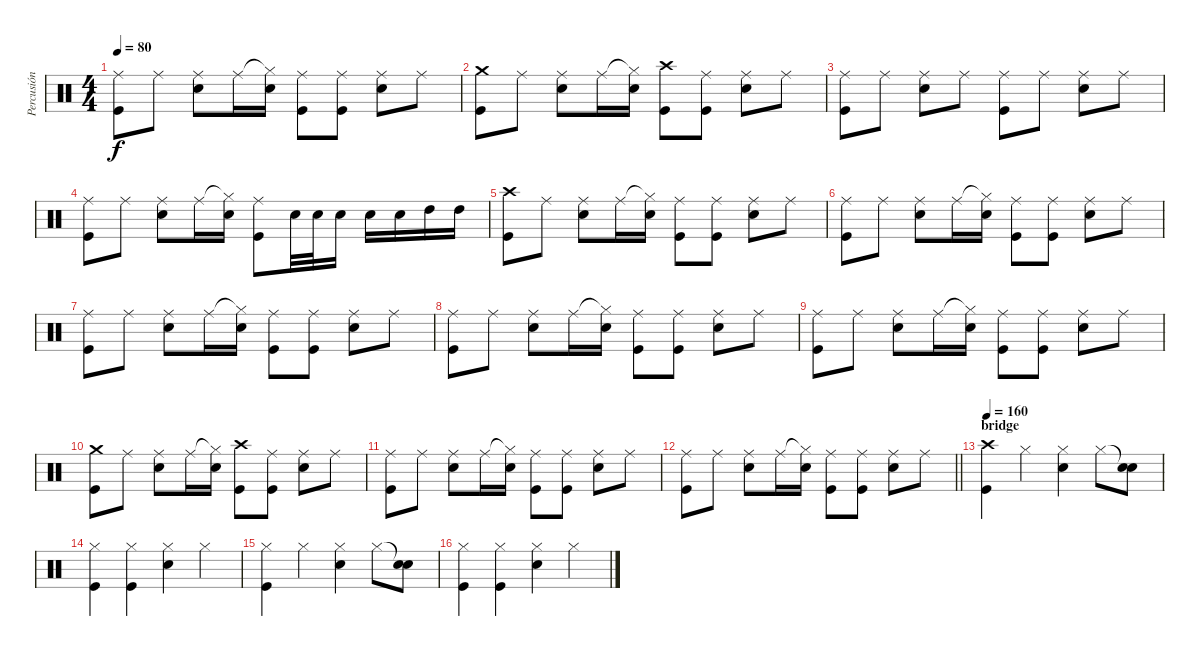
\track ("Percusión" "Percusión") {instrument percussion}
\staff {score}
\articulation defaults
\ts (4 4)
\tempo 80
\clef neutral
\ks c
("Ride (middle)" "Kick (hit)").8{dy f} "Ride (middle)".8 ("Ride (middle)" "Snare (hit) 2").8 "Ride (middle)".16 ("Hi-Hat (closed)"{t} "Snare (hit) 2").16 ("Ride (middle)" "Kick (hit)").8 ("Ride (middle)" "Kick (hit)").8 ("Ride (middle)" "Snare (hit) 2").8 "Ride (middle)".8 |
("Crash medium (hit)" "Kick (hit)").8 "Ride (middle)".8 ("Ride (middle)" "Snare (hit) 2").8 "Ride (middle)".16 ("Hi-Hat (closed)"{t} "Snare (hit) 2").16 ("Crash high (hit)" "Kick (hit)").8 ("Ride (middle)" "Kick (hit)").8 ("Ride (middle)" "Snare (hit) 2").8 "Ride (middle)".8 |
("Ride (middle)" "Kick (hit)").8 "Ride (middle)".8 ("Ride (middle)" "Snare (hit) 2").8 "Ride (middle)".8 ("Ride (middle)" "Kick (hit)").8 "Ride (middle)".8 ("Ride (middle)" "Snare (hit) 2").8 "Ride (middle)".8 |
("Ride (middle)" "Kick (hit)").8 "Ride (middle)".8 ("Ride (middle)" "Snare (hit) 2").8 "Ride (middle)".16 ("Hi-Hat (closed)"{t} "Snare (hit) 2").16 ("Ride (middle)" "Kick (hit)").8 "Snare (hit) 2".32 "Snare (hit) 2".32 "Snare (hit) 2".16 "Snare (hit) 2".16 "Snare (hit) 2".16 "High Tom (hit)".16 "High Tom (hit)".16 |
("Crash high (hit)" "Kick (hit)").8 "Ride (middle)".8 ("Ride (middle)" "Snare (hit) 2").8 "Ride (middle)".16 ("Hi-Hat (closed)"{t} "Snare (hit) 2").16 ("Ride (middle)" "Kick (hit)").8 ("Ride (middle)" "Kick (hit)").8 ("Ride (middle)" "Snare (hit) 2").8 "Ride (middle)".8 |
("Ride (middle)" "Kick (hit)").8 "Ride (middle)".8 ("Ride (middle)" "Snare (hit) 2").8 "Ride (middle)".16 ("Hi-Hat (closed)"{t} "Snare (hit) 2").16 ("Ride (middle)" "Kick (hit)").8 ("Ride (middle)" "Kick (hit)").8 ("Ride (middle)" "Snare (hit) 2").8 "Ride (middle)".8 |
("Ride (middle)" "Kick (hit)").8 "Ride (middle)".8 ("Ride (middle)" "Snare (hit) 2").8 "Ride (middle)".16 ("Hi-Hat (closed)"{t} "Snare (hit) 2").16 ("Ride (middle)" "Kick (hit)").8 ("Ride (middle)" "Kick (hit)").8 ("Ride (middle)" "Snare (hit) 2").8 "Ride (middle)".8 |
("Ride (middle)" "Kick (hit)").8 "Ride (middle)".8 ("Ride (middle)" "Snare (hit) 2").8 "Ride (middle)".16 ("Hi-Hat (closed)"{t} "Snare (hit) 2").16 ("Ride (middle)" "Kick (hit)").8 ("Ride (middle)" "Kick (hit)").8 ("Ride (middle)" "Snare (hit) 2").8 "Ride (middle)".8 |
("Ride (middle)" "Kick (hit)").8 "Ride (middle)".8 ("Ride (middle)" "Snare (hit) 2").8 "Ride (middle)".16 ("Hi-Hat (closed)"{t} "Snare (hit) 2").16 ("Ride (middle)" "Kick (hit)").8 ("Ride (middle)" "Kick (hit)").8 ("Ride (middle)" "Snare (hit) 2").8 "Ride (middle)".8 |
("Crash medium (hit)" "Kick (hit)").8 "Ride (middle)".8 ("Ride (middle)" "Snare (hit) 2").8 "Ride (middle)".16 ("Hi-Hat (closed)"{t} "Snare (hit) 2").16 ("Crash high (hit)" "Kick (hit)").8 ("Ride (middle)" "Kick (hit)").8 ("Ride (middle)" "Snare (hit) 2").8 "Ride (middle)".8 |
("Ride (middle)" "Kick (hit)").8 "Ride (middle)".8 ("Ride (middle)" "Snare (hit) 2").8 "Ride (middle)".16 ("Hi-Hat (closed)"{t} "Snare (hit) 2").16 ("Ride (middle)" "Kick (hit)").8 ("Ride (middle)" "Kick (hit)").8 ("Ride (middle)" "Snare (hit) 2").8 "Ride (middle)".8 |
\barLineRight lightlight
("Ride (middle)" "Kick (hit)").8 "Ride (middle)".8 ("Ride (middle)" "Snare (hit) 2").8 "Ride (middle)".16 ("Hi-Hat (closed)"{t} "Snare (hit) 2").16 ("Ride (middle)" "Kick (hit)").8 ("Ride (middle)" "Kick (hit)").8 ("Ride (middle)" "Snare (hit) 2").8 "Ride (middle)".8 |
\section ("" "bridge")
\tempo 160
("Crash high (hit)" "Kick (hit)").4 "Hi-Hat (closed)".4 ("Hi-Hat (closed)" "Snare (hit) 2").4 "Hi-Hat (closed)".8 ("Snare (hit)"{t} "Snare (hit) 2").8 |
("Hi-Hat (closed)" "Kick (hit)").4 ("Hi-Hat (closed)" "Kick (hit)").4 ("Hi-Hat (closed)" "Snare (hit) 2").4 "Hi-Hat (closed)".4 |
("Hi-Hat (closed)" "Kick (hit)").4 "Hi-Hat (closed)".4 ("Hi-Hat (closed)" "Snare (hit) 2").4 "Hi-Hat (closed)".8 ("Snare (hit)"{t} "Snare (hit) 2").8 |
("Hi-Hat (closed)" "Kick (hit)").4 ("Hi-Hat (closed)" "Kick (hit)").4 ("Hi-Hat (closed)" "Snare (hit) 2").4 "Hi-Hat (closed)".4
